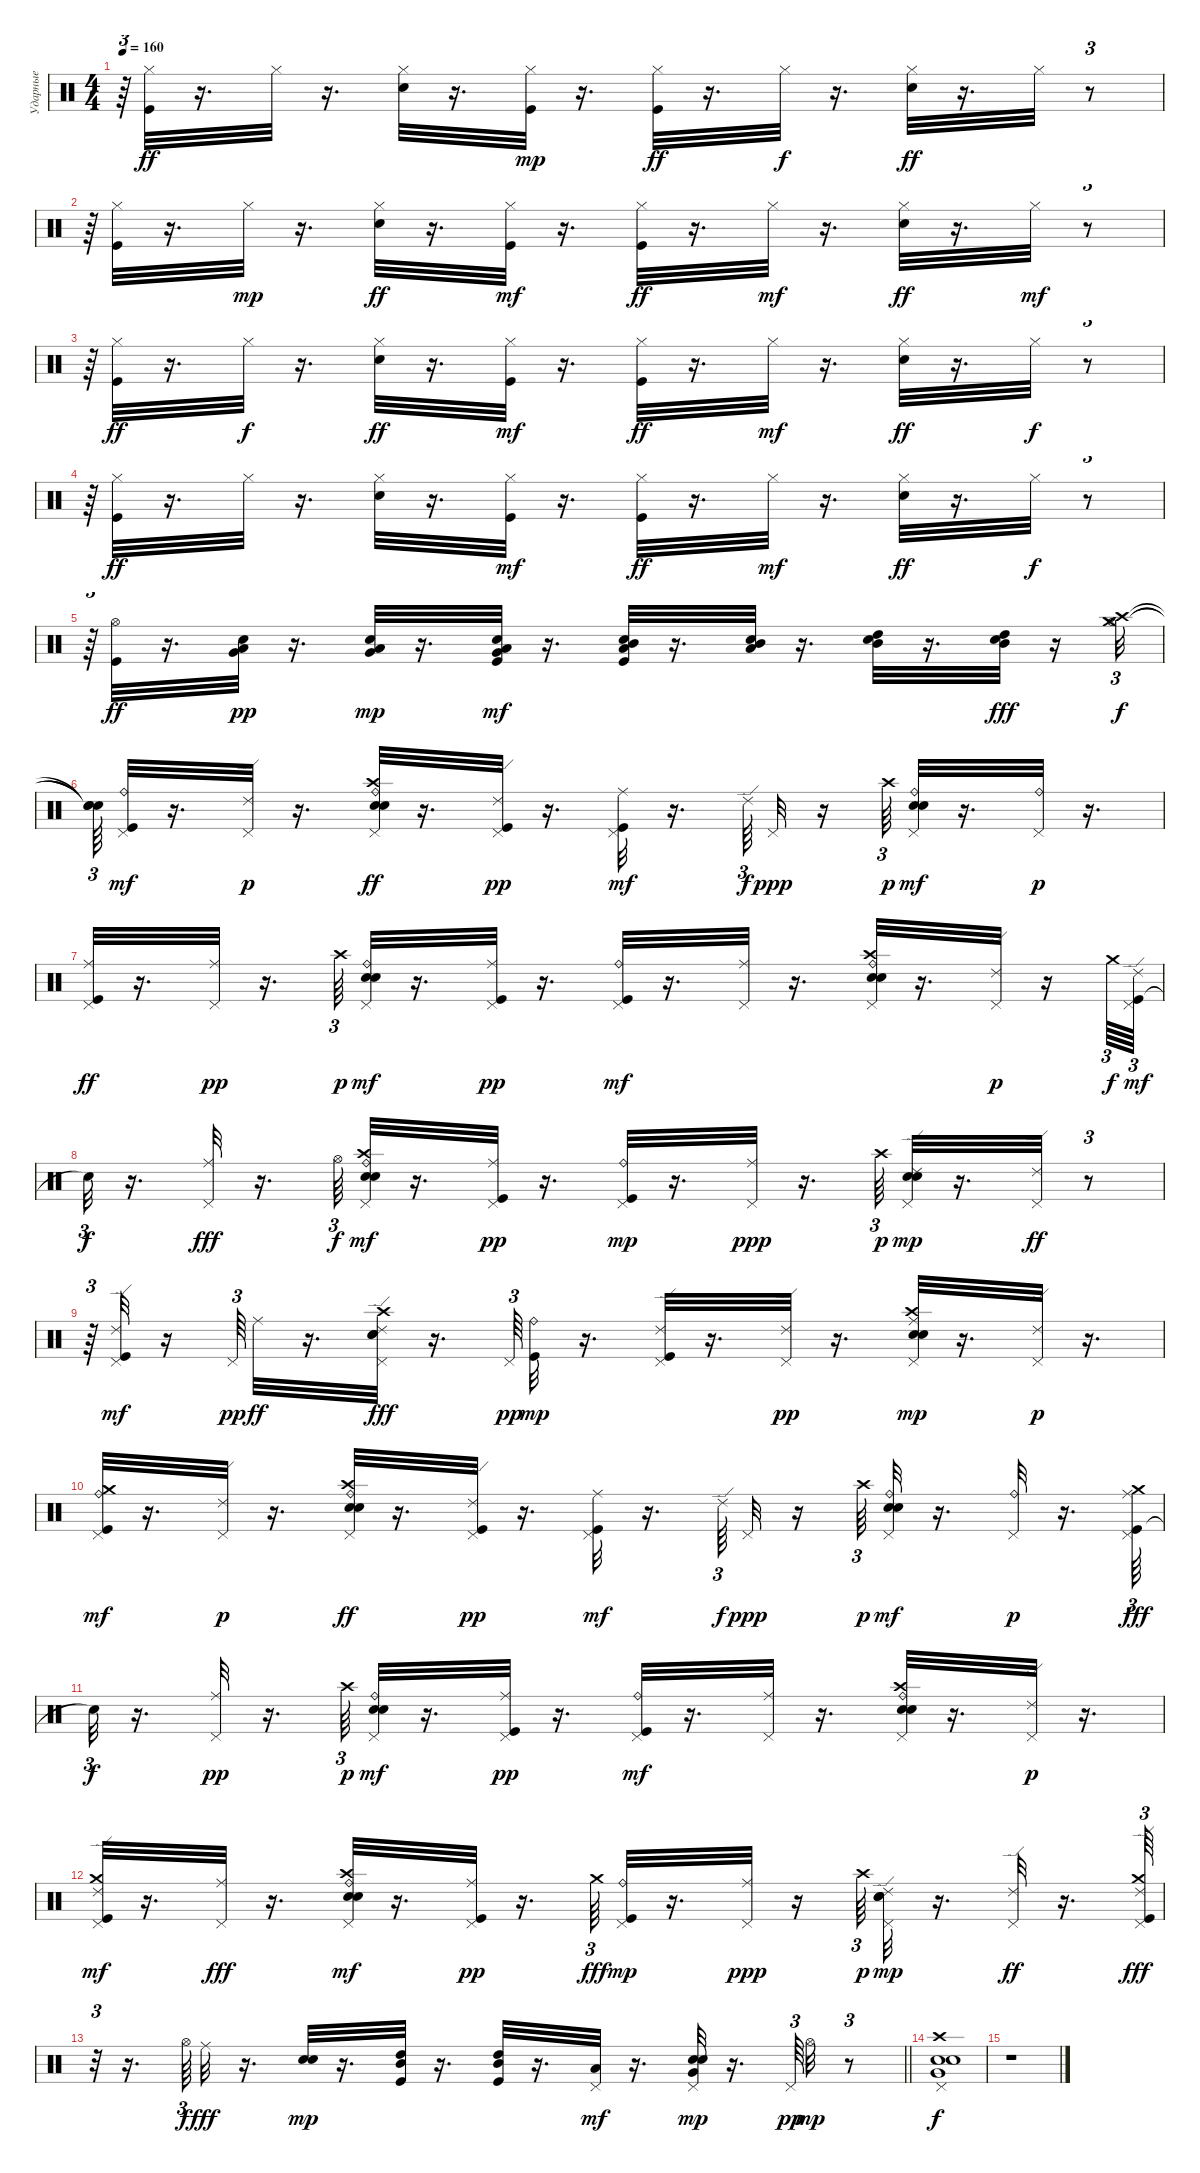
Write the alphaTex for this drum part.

\track ("Ударные" "Ударные") {instrument percussion}
\staff {score}
\articulation defaults
\ts (4 4)
\tempo 160
\clef neutral
\ks c
r.64{tu (3 2) dy f} ("Kick (hit)" "Hi-Hat (closed)").32{dy ff} r.16{d} "Hi-Hat (closed)".32 r.16{d} ("Hi-Hat (closed)" "Electric Snare (hit)").32 r.16{d} ("Kick (hit)" "Hi-Hat (closed)").32{dy mp} r.16{d} ("Kick (hit)" "Hi-Hat (closed)").32{dy ff} r.16{d} "Hi-Hat (closed)".32{dy f} r.16{d} ("Hi-Hat (closed)" "Electric Snare (hit)").32{dy ff} r.16{d} "Hi-Hat (closed)".32 r.8{tu (3 2)} |
r.64{tu (3 2)} ("Kick (hit)" "Hi-Hat (closed)").32 r.16{d} "Hi-Hat (closed)".32{dy mp} r.16{d} ("Hi-Hat (closed)" "Electric Snare (hit)").32{dy ff} r.16{d} ("Kick (hit)" "Hi-Hat (closed)").32{dy mf} r.16{d} ("Kick (hit)" "Hi-Hat (closed)").32{dy ff} r.16{d} "Hi-Hat (closed)".32{dy mf} r.16{d} ("Hi-Hat (closed)" "Electric Snare (hit)").32{dy ff} r.16{d} "Hi-Hat (closed)".32{dy mf} r.8{tu (3 2)} |
r.64{tu (3 2)} ("Kick (hit)" "Hi-Hat (closed)").32{dy ff} r.16{d} "Hi-Hat (closed)".32{dy f} r.16{d} ("Hi-Hat (closed)" "Electric Snare (hit)").32{dy ff} r.16{d} ("Kick (hit)" "Hi-Hat (closed)").32{dy mf} r.16{d} ("Kick (hit)" "Hi-Hat (closed)").32{dy ff} r.16{d} "Hi-Hat (closed)".32{dy mf} r.16{d} ("Hi-Hat (closed)" "Electric Snare (hit)").32{dy ff} r.16{d} "Hi-Hat (closed)".32{dy f} r.8{tu (3 2)} |
r.64{tu (3 2)} ("Kick (hit)" "Hi-Hat (closed)").32{dy ff} r.16{d} "Hi-Hat (closed)".32 r.16{d} ("Hi-Hat (closed)" "Electric Snare (hit)").32 r.16{d} ("Kick (hit)" "Hi-Hat (closed)").32{dy mf} r.16{d} ("Kick (hit)" "Hi-Hat (closed)").32{dy ff} r.16{d} "Hi-Hat (closed)".32{dy mf} r.16{d} ("Hi-Hat (closed)" "Electric Snare (hit)").32{dy ff} r.16{d} "Hi-Hat (closed)".32{dy f} r.8{tu (3 2)} |
r.64{tu (3 2)} ("Kick (hit)" "Hi-Hat (open)").32{dy ff} r.16{d} ("Electric Snare (hit)" "Low Tom (hit)" "Very Low Tom (hit)").32{dy pp} r.16{d} ("Electric Snare (hit)" "Low Tom (hit)" "Very Low Tom (hit)").32{dy mp} r.16{d} ("Kick (hit)" "Electric Snare (hit)" "Low Tom (hit)" "Very Low Tom (hit)").32{dy mf} r.16{d} ("Kick (hit)" "Electric Snare (hit)" "Mid Tom (hit)" "Low Tom (hit)").32 r.16{d} ("Electric Snare (hit)" "Mid Tom (hit)" "Low Tom (hit)").32 r.16{d} ("Electric Snare (hit)" "High Tom (hit)" "Mid Tom (hit)").32 r.16{d} ("Electric Snare (hit)" "High Tom (hit)" "Mid Tom (hit)").32{dy fff} r.16 ("Crash high (hit)" "Crash medium (hit)" "Hi-Hat (open)").32{tu (3 2) dy f} |
("Snare (hit)"{t} "Snare (hit)"{t} "Snare (hit)"{t}).64{tu (3 2)} ("Kick (hit)" "Ride (bell)" "Pedal Hi-Hat (hit)").32{dy mf} r.16{d} ("Ride (edge) 2" "Pedal Hi-Hat (hit)").32{dy p} r.16{d} ("Electric Snare (hit)" "Crash high (hit)" "Snare (hit) 2" "Ride (bell)" "Pedal Hi-Hat (hit)").32{dy ff} r.16{d} ("Kick (hit)" "Ride (edge) 2" "Pedal Hi-Hat (hit)").32{dy pp} r.16{d} ("Kick (hit)" "Ride (middle)" "Pedal Hi-Hat (hit)").32{dy mf} r.16{d} "Ride (edge) 2".64{tu (3 2) dy f} "Pedal Hi-Hat (hit)".32{dy ppp} r.16 "Crash high (hit)".64{tu (3 2) dy p} ("Electric Snare (hit)" "Snare (hit) 2" "Ride (bell)" "Pedal Hi-Hat (hit)").32{dy mf} r.16{d} ("Ride (bell)" "Pedal Hi-Hat (hit)").32{dy p} r.16{d} |
("Kick (hit)" "Ride (middle)" "Pedal Hi-Hat (hit)").32{dy ff} r.16{d} ("Ride (middle)" "Pedal Hi-Hat (hit)").32{dy pp} r.16{d} "Crash high (hit)".64{tu (3 2) dy p} ("Electric Snare (hit)" "Snare (hit) 2" "Ride (bell)" "Pedal Hi-Hat (hit)").32{dy mf} r.16{d} ("Kick (hit)" "Ride (middle)" "Pedal Hi-Hat (hit)").32{dy pp} r.16{d} ("Kick (hit)" "Ride (bell)" "Pedal Hi-Hat (hit)").32{dy mf} r.16{d} ("Pedal Hi-Hat (hit)" "Ride (middle)").32 r.16{d} ("Electric Snare (hit)" "Crash high (hit)" "Snare (hit) 2" "Ride (bell)" "Pedal Hi-Hat (hit)").32 r.16{d} ("Ride (edge) 2" "Pedal Hi-Hat (hit)").32{dy p} r.16 "Crash medium (hit)".64{tu (3 2) dy f} ("Kick (hit)" "Ride (edge) 2" "Pedal Hi-Hat (hit)").64{tu (3 2) dy mf} |
"Snare (hit)"{t}.32{tu (3 2) dy f} r.16{d} ("Pedal Hi-Hat (hit)" "Ride (middle)").32{dy fff} r.16{d} "Hi-Hat (open)".64{tu (3 2) dy f} ("Electric Snare (hit)" "Crash high (hit)" "Snare (hit) 2" "Ride (bell)" "Pedal Hi-Hat (hit)").32{dy mf} r.16{d} ("Kick (hit)" "Ride (middle)" "Pedal Hi-Hat (hit)").32{dy pp} r.16{d} ("Kick (hit)" "Ride (bell)" "Pedal Hi-Hat (hit)").32{dy mp} r.16{d} ("Ride (middle)" "Pedal Hi-Hat (hit)").32{dy ppp} r.16{d} "Crash high (hit)".64{tu (3 2) dy p} ("Electric Snare (hit)" "Snare (hit) 2" "Ride (edge) 2" "Pedal Hi-Hat (hit)").32{dy mp} r.16{d} ("Pedal Hi-Hat (hit)" "Ride (edge) 2").32{dy ff} r.8{tu (3 2)} |
r.64{tu (3 2)} ("Kick (hit)" "Ride (edge) 2" "Pedal Hi-Hat (hit)").32{dy mf} r.16 "Pedal Hi-Hat (hit)".64{tu (3 2) dy pp} "Ride (middle)".32{dy ff} r.16{d} ("Pedal Hi-Hat (hit)" "Electric Snare (hit)" "Crash high (hit)" "Snare (hit) 2" "Ride (edge) 2").32{dy fff} r.16{d} "Pedal Hi-Hat (hit)".64{tu (3 2) dy pp} ("Kick (hit)" "Ride (bell)").32{dy mp} r.16{d} ("Kick (hit)" "Ride (edge) 2" "Pedal Hi-Hat (hit)").32 r.16{d} ("Ride (edge) 2" "Pedal Hi-Hat (hit)").32{dy pp} r.16{d} ("Electric Snare (hit)" "Snare (hit) 2" "Ride (middle)" "Pedal Hi-Hat (hit)" "Crash high (hit)").32{dy mp} r.16{d} ("Ride (edge) 2" "Pedal Hi-Hat (hit)").32{dy p} r.16{d} |
("Crash medium (hit)" "Kick (hit)" "Ride (bell)" "Pedal Hi-Hat (hit)").32{dy mf} r.16{d} ("Ride (edge) 2" "Pedal Hi-Hat (hit)").32{dy p} r.16{d} ("Electric Snare (hit)" "Crash high (hit)" "Snare (hit) 2" "Ride (bell)" "Pedal Hi-Hat (hit)").32{dy ff} r.16{d} ("Kick (hit)" "Ride (edge) 2" "Pedal Hi-Hat (hit)").32{dy pp} r.16{d} ("Kick (hit)" "Ride (middle)" "Pedal Hi-Hat (hit)").32{dy mf} r.16{d} "Ride (edge) 2".64{tu (3 2) dy f} "Pedal Hi-Hat (hit)".32{dy ppp} r.16 "Crash high (hit)".64{tu (3 2) dy p} ("Electric Snare (hit)" "Snare (hit) 2" "Ride (bell)" "Pedal Hi-Hat (hit)").32{dy mf} r.16{d} ("Ride (bell)" "Pedal Hi-Hat (hit)").32{dy p} r.16{d} ("Kick (hit)" "Ride (middle)" "Pedal Hi-Hat (hit)" "Crash medium (hit)").64{tu (3 2) dy fff} |
"Snare (hit)"{t}.32{tu (3 2) dy f} r.16{d} ("Ride (middle)" "Pedal Hi-Hat (hit)").32{dy pp} r.16{d} "Crash high (hit)".64{tu (3 2) dy p} ("Electric Snare (hit)" "Snare (hit) 2" "Ride (bell)" "Pedal Hi-Hat (hit)").32{dy mf} r.16{d} ("Kick (hit)" "Ride (middle)" "Pedal Hi-Hat (hit)").32{dy pp} r.16{d} ("Kick (hit)" "Ride (bell)" "Pedal Hi-Hat (hit)").32{dy mf} r.16{d} ("Pedal Hi-Hat (hit)" "Ride (middle)").32 r.16{d} ("Electric Snare (hit)" "Crash high (hit)" "Snare (hit) 2" "Ride (bell)" "Pedal Hi-Hat (hit)").32 r.16{d} ("Ride (edge) 2" "Pedal Hi-Hat (hit)").32{dy p} r.16{d} |
("Crash medium (hit)" "Kick (hit)" "Ride (edge) 2" "Pedal Hi-Hat (hit)").32{dy mf} r.16{d} ("Pedal Hi-Hat (hit)" "Ride (middle)").32{dy fff} r.16{d} ("Electric Snare (hit)" "Crash high (hit)" "Snare (hit) 2" "Ride (bell)" "Pedal Hi-Hat (hit)").32{dy mf} r.16{d} ("Kick (hit)" "Ride (middle)" "Pedal Hi-Hat (hit)").32{dy pp} r.16{d} "Crash medium (hit)".64{tu (3 2) dy fff} ("Kick (hit)" "Ride (bell)" "Pedal Hi-Hat (hit)").32{dy mp} r.16{d} ("Ride (middle)" "Pedal Hi-Hat (hit)").32{dy ppp} r.16 "Crash high (hit)".64{tu (3 2) dy p} ("Electric Snare (hit)" "Snare (hit) 2" "Ride (edge) 2" "Pedal Hi-Hat (hit)").32{dy mp} r.16{d} ("Pedal Hi-Hat (hit)" "Ride (edge) 2").32{dy ff} r.16{d} ("Kick (hit)" "Crash medium (hit)" "Ride (edge) 2" "Pedal Hi-Hat (hit)").64{tu (3 2) dy fff} |
\barLineRight lightlight
r.32{tu (3 2)} r.16{d} "Hi-Hat (open)".64{tu (3 2) dy f} "Ride (middle)".32{dy fff} r.16{d} ("Electric Snare (hit)" "Snare (hit) 2").32{dy mp} r.16{d} ("Kick (hit)" "High Tom (hit)" "Mid Tom (hit)").32 r.16{d} ("Kick (hit)" "High Tom (hit)" "Mid Tom (hit)").32 r.16{d} ("Pedal Hi-Hat (hit)" "Low Tom (hit)").32{dy mf} r.16{d} ("Pedal Hi-Hat (hit)" "Electric Snare (hit)" "Very Low Tom (hit)" "Snare (hit) 2").32{dy mp} r.16{d} "Pedal Hi-Hat (hit)".64{tu (3 2) dy pp} "Hi-Hat (open)".32{dy mp} r.8{tu (3 2)} |
("Pedal Hi-Hat (hit)" "Electric Snare (hit)" "Very Low Tom (hit)" "Snare (hit) 2" "Crash high (hit)").1{dy f} |
r.1
